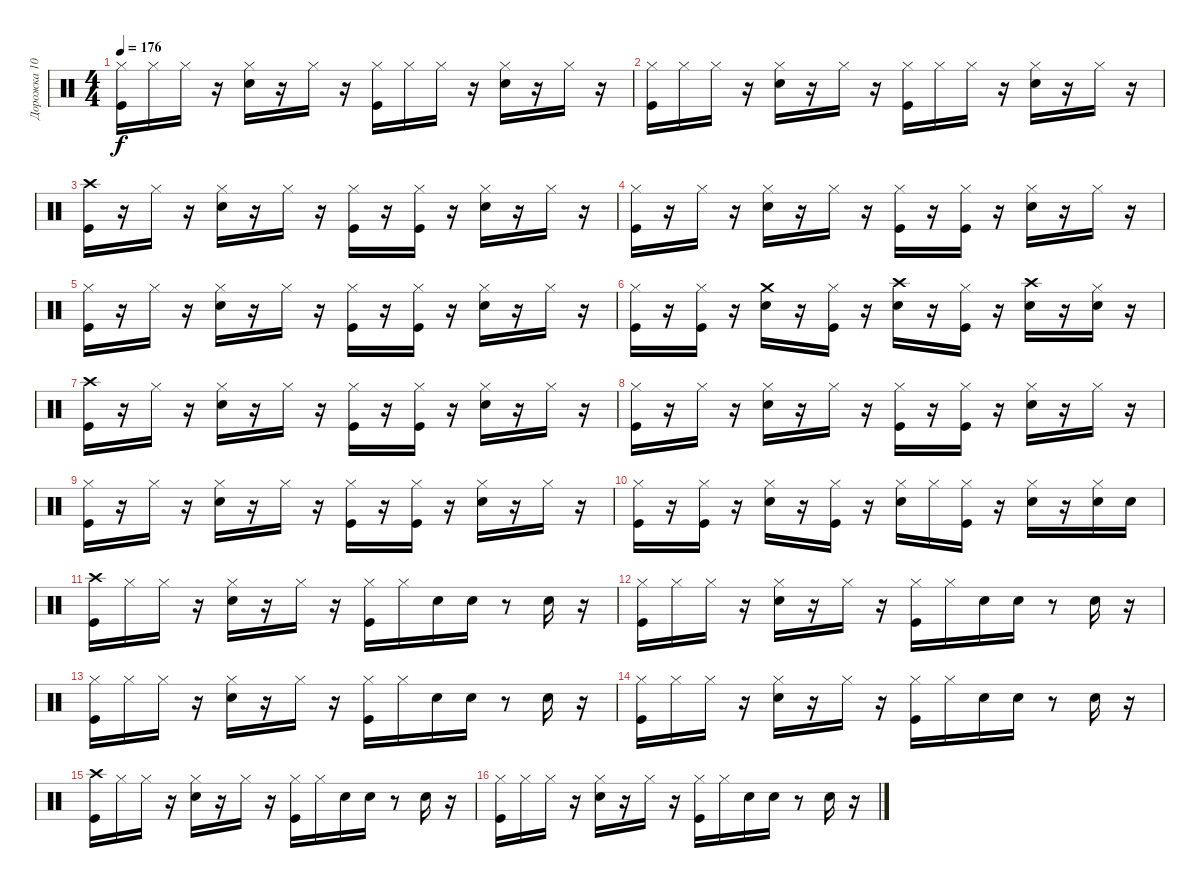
\track ("Дорожка 10" "Дорожка 10") {instrument percussion}
\staff {score}
\articulation defaults
\ts (4 4)
\tempo 176
\clef neutral
\ks c
("Kick (hit)" "Hi-Hat (closed)").16{dy f} "Hi-Hat (closed)".16 "Hi-Hat (closed)".16 r.16 ("Hi-Hat (closed)" "Electric Snare (hit)").16 r.16 "Hi-Hat (closed)".16 r.16 ("Hi-Hat (closed)" "Kick (hit)").16 "Hi-Hat (closed)".16 "Hi-Hat (closed)".16 r.16 ("Hi-Hat (closed)" "Electric Snare (hit)").16 r.16 "Hi-Hat (closed)".16 r.16 |
("Kick (hit)" "Hi-Hat (closed)").16 "Hi-Hat (closed)".16 "Hi-Hat (closed)".16 r.16 ("Hi-Hat (closed)" "Electric Snare (hit)").16 r.16 "Hi-Hat (closed)".16 r.16 ("Hi-Hat (closed)" "Kick (hit)").16 "Hi-Hat (closed)".16 "Hi-Hat (closed)".16 r.16 ("Hi-Hat (closed)" "Electric Snare (hit)").16 r.16 "Hi-Hat (closed)".16 r.16 |
("Crash high (hit)" "Kick (hit)").16 r.16 "Hi-Hat (closed)".16 r.16 ("Hi-Hat (closed)" "Electric Snare (hit)").16 r.16 "Hi-Hat (closed)".16 r.16 ("Hi-Hat (closed)" "Kick (hit)").16 r.16 ("Hi-Hat (closed)" "Kick (hit)").16 r.16 ("Hi-Hat (closed)" "Electric Snare (hit)").16 r.16 "Hi-Hat (closed)".16 r.16 |
("Kick (hit)" "Hi-Hat (closed)").16 r.16 "Hi-Hat (closed)".16 r.16 ("Hi-Hat (closed)" "Electric Snare (hit)").16 r.16 "Hi-Hat (closed)".16 r.16 ("Hi-Hat (closed)" "Kick (hit)").16 r.16 ("Hi-Hat (closed)" "Kick (hit)").16 r.16 ("Hi-Hat (closed)" "Electric Snare (hit)").16 r.16 "Hi-Hat (closed)".16 r.16 |
("Kick (hit)" "Hi-Hat (closed)").16 r.16 "Hi-Hat (closed)".16 r.16 ("Electric Snare (hit)" "Hi-Hat (closed)").16 r.16 "Hi-Hat (closed)".16 r.16 ("Kick (hit)" "Hi-Hat (closed)").16 r.16 ("Hi-Hat (closed)" "Kick (hit)").16 r.16 ("Hi-Hat (closed)" "Electric Snare (hit)").16 r.16 "Hi-Hat (closed)".16 r.16 |
("Hi-Hat (closed)" "Kick (hit)").16 r.16 ("Hi-Hat (closed)" "Kick (hit)").16 r.16 ("Electric Snare (hit)" "Crash medium (hit)").16 r.16 ("Kick (hit)" "Hi-Hat (closed)").16 r.16 ("Electric Snare (hit)" "Crash high (hit)").16 r.16 ("Kick (hit)" "Hi-Hat (closed)").16 r.16 ("Crash high (hit)" "Electric Snare (hit)").16 r.16 ("Hi-Hat (closed)" "Electric Snare (hit)").16 r.16 |
("Kick (hit)" "Crash high (hit)").16 r.16 "Hi-Hat (closed)".16 r.16 ("Electric Snare (hit)" "Hi-Hat (closed)").16 r.16 "Hi-Hat (closed)".16 r.16 ("Hi-Hat (closed)" "Kick (hit)").16 r.16 ("Hi-Hat (closed)" "Kick (hit)").16 r.16 ("Hi-Hat (closed)" "Electric Snare (hit)").16 r.16 "Hi-Hat (closed)".16 r.16 |
("Kick (hit)" "Hi-Hat (closed)").16 r.16 "Hi-Hat (closed)".16 r.16 ("Electric Snare (hit)" "Hi-Hat (closed)").16 r.16 "Hi-Hat (closed)".16 r.16 ("Kick (hit)" "Hi-Hat (closed)").16 r.16 ("Hi-Hat (closed)" "Kick (hit)").16 r.16 ("Electric Snare (hit)" "Hi-Hat (closed)").16 r.16 "Hi-Hat (closed)".16 r.16 |
("Hi-Hat (closed)" "Kick (hit)").16 r.16 "Hi-Hat (closed)".16 r.16 ("Electric Snare (hit)" "Hi-Hat (closed)").16 r.16 "Hi-Hat (closed)".16 r.16 ("Kick (hit)" "Hi-Hat (closed)").16 r.16 ("Kick (hit)" "Hi-Hat (closed)").16 r.16 ("Electric Snare (hit)" "Hi-Hat (closed)").16 r.16 "Hi-Hat (closed)".16 r.16 |
("Kick (hit)" "Hi-Hat (closed)").16 r.16 ("Hi-Hat (closed)" "Kick (hit)").16 r.16 ("Hi-Hat (closed)" "Electric Snare (hit)").16 r.16 ("Hi-Hat (closed)" "Kick (hit)").16 r.16 ("Hi-Hat (closed)" "Electric Snare (hit)").16 "Hi-Hat (closed)".16 ("Hi-Hat (closed)" "Kick (hit)").16 r.16 ("Hi-Hat (closed)" "Electric Snare (hit)").16 r.16 ("Hi-Hat (closed)" "Electric Snare (hit)").16 "Electric Snare (hit)".16 |
("Kick (hit)" "Crash high (hit)").16 "Hi-Hat (closed)".16 "Hi-Hat (closed)".16 r.16 ("Hi-Hat (closed)" "Electric Snare (hit)").16 r.16 "Hi-Hat (closed)".16 r.16 ("Hi-Hat (closed)" "Kick (hit)").16 "Hi-Hat (closed)".16 "Electric Snare (hit)".16 "Electric Snare (hit)".16 r.8 "Electric Snare (hit)".16 r.16 |
("Hi-Hat (closed)" "Kick (hit)").16 "Hi-Hat (closed)".16 "Hi-Hat (closed)".16 r.16 ("Electric Snare (hit)" "Hi-Hat (closed)").16 r.16 "Hi-Hat (closed)".16 r.16 ("Kick (hit)" "Hi-Hat (closed)").16 "Hi-Hat (closed)".16 "Electric Snare (hit)".16 "Electric Snare (hit)".16 r.8 "Electric Snare (hit)".16 r.16 |
("Hi-Hat (closed)" "Kick (hit)").16 "Hi-Hat (closed)".16 "Hi-Hat (closed)".16 r.16 ("Hi-Hat (closed)" "Electric Snare (hit)").16 r.16 "Hi-Hat (closed)".16 r.16 ("Kick (hit)" "Hi-Hat (closed)").16 "Hi-Hat (closed)".16 "Electric Snare (hit)".16 "Electric Snare (hit)".16 r.8 "Electric Snare (hit)".16 r.16 |
("Kick (hit)" "Hi-Hat (closed)").16 "Hi-Hat (closed)".16 "Hi-Hat (closed)".16 r.16 ("Electric Snare (hit)" "Hi-Hat (closed)").16 r.16 "Hi-Hat (closed)".16 r.16 ("Kick (hit)" "Hi-Hat (closed)").16 "Hi-Hat (closed)".16 "Electric Snare (hit)".16 "Electric Snare (hit)".16 r.8 "Electric Snare (hit)".16 r.16 |
("Crash high (hit)" "Kick (hit)").16 "Hi-Hat (closed)".16 "Hi-Hat (closed)".16 r.16 ("Electric Snare (hit)" "Hi-Hat (closed)").16 r.16 "Hi-Hat (closed)".16 r.16 ("Hi-Hat (closed)" "Kick (hit)").16 "Hi-Hat (closed)".16 "Electric Snare (hit)".16 "Electric Snare (hit)".16 r.8 "Electric Snare (hit)".16 r.16 |
("Hi-Hat (closed)" "Kick (hit)").16 "Hi-Hat (closed)".16 "Hi-Hat (closed)".16 r.16 ("Hi-Hat (closed)" "Electric Snare (hit)").16 r.16 "Hi-Hat (closed)".16 r.16 ("Hi-Hat (closed)" "Kick (hit)").16 "Hi-Hat (closed)".16 "Electric Snare (hit)".16 "Electric Snare (hit)".16 r.8 "Electric Snare (hit)".16 r.16
